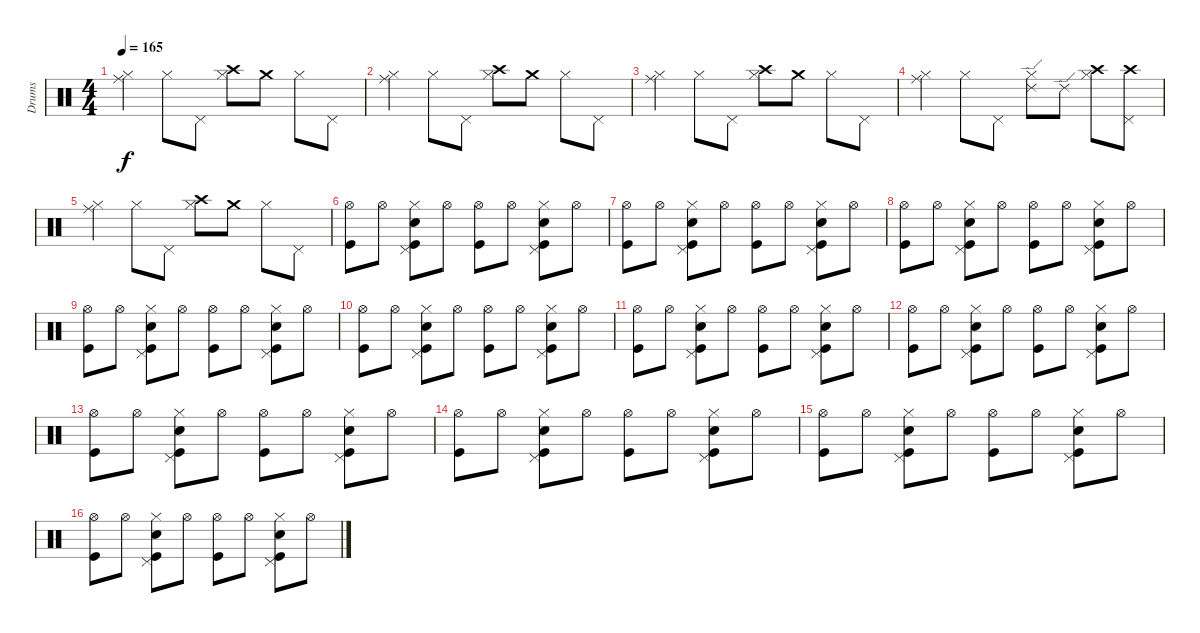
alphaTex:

\track ("Drums" "Drums") {instrument percussion}
\staff {score}
\articulation defaults
\ts (4 4)
\tempo 165
\clef neutral
\ks c
("Hi-Hat (closed)" "Ride (middle)").4{dy f} "Hi-Hat (closed)".8 "Pedal Hi-Hat (hit)".8 ("Hi-Hat (closed)" "Crash high (hit)").8 "Crash medium (hit)".8 "Hi-Hat (closed)".8 "Pedal Hi-Hat (hit)".8 |
("Hi-Hat (closed)" "Ride (middle)").4 "Hi-Hat (closed)".8 "Pedal Hi-Hat (hit)".8 ("Hi-Hat (closed)" "Crash high (hit)").8 "Crash medium (hit)".8 "Hi-Hat (closed)".8 "Pedal Hi-Hat (hit)".8 |
("Hi-Hat (closed)" "Ride (middle)").4 "Hi-Hat (closed)".8 "Pedal Hi-Hat (hit)".8 ("Hi-Hat (closed)" "Crash high (hit)").8 "Crash medium (hit)".8 "Hi-Hat (closed)".8 "Pedal Hi-Hat (hit)".8 |
("Hi-Hat (closed)" "Ride (middle)").4 "Hi-Hat (closed)".8 "Pedal Hi-Hat (hit)".8 ("Hi-Hat (closed)" "Ride (edge) 2").8 "Ride (edge) 2".8 ("Hi-Hat (closed)" "Crash high (hit)").8 ("Pedal Hi-Hat (hit)" "Crash high (hit)").8 |
("Hi-Hat (closed)" "Ride (middle)").4 "Hi-Hat (closed)".8 "Pedal Hi-Hat (hit)".8 ("Hi-Hat (closed)" "Crash high (hit)").8 "Crash medium (hit)".8 "Hi-Hat (closed)".8 "Pedal Hi-Hat (hit)".8 |
("Hi-Hat (open)" "Kick (hit)").8 "Hi-Hat (open)".8 ("Hi-Hat (closed)" "Pedal Hi-Hat (hit)" "Snare (hit) 2" "Kick (hit)").8 "Hi-Hat (open)".8 ("Hi-Hat (open)" "Kick (hit)").8 "Hi-Hat (open)".8 ("Hi-Hat (closed)" "Pedal Hi-Hat (hit)" "Snare (hit) 2" "Kick (hit)").8 "Hi-Hat (open)".8 |
("Hi-Hat (open)" "Kick (hit)").8 "Hi-Hat (open)".8 ("Hi-Hat (closed)" "Pedal Hi-Hat (hit)" "Snare (hit) 2" "Kick (hit)").8 "Hi-Hat (open)".8 ("Hi-Hat (open)" "Kick (hit)").8 "Hi-Hat (open)".8 ("Hi-Hat (closed)" "Pedal Hi-Hat (hit)" "Snare (hit) 2" "Kick (hit)").8 "Hi-Hat (open)".8 |
("Hi-Hat (open)" "Kick (hit)").8 "Hi-Hat (open)".8 ("Hi-Hat (closed)" "Pedal Hi-Hat (hit)" "Snare (hit) 2" "Kick (hit)").8 "Hi-Hat (open)".8 ("Hi-Hat (open)" "Kick (hit)").8 "Hi-Hat (open)".8 ("Hi-Hat (closed)" "Pedal Hi-Hat (hit)" "Snare (hit) 2" "Kick (hit)").8 "Hi-Hat (open)".8 |
("Hi-Hat (open)" "Kick (hit)").8 "Hi-Hat (open)".8 ("Hi-Hat (closed)" "Pedal Hi-Hat (hit)" "Snare (hit) 2" "Kick (hit)").8 "Hi-Hat (open)".8 ("Hi-Hat (open)" "Kick (hit)").8 "Hi-Hat (open)".8 ("Hi-Hat (closed)" "Pedal Hi-Hat (hit)" "Snare (hit) 2" "Kick (hit)").8 "Hi-Hat (open)".8 |
("Hi-Hat (open)" "Kick (hit)").8 "Hi-Hat (open)".8 ("Hi-Hat (closed)" "Pedal Hi-Hat (hit)" "Snare (hit) 2" "Kick (hit)").8 "Hi-Hat (open)".8 ("Hi-Hat (open)" "Kick (hit)").8 "Hi-Hat (open)".8 ("Hi-Hat (closed)" "Pedal Hi-Hat (hit)" "Snare (hit) 2" "Kick (hit)").8 "Hi-Hat (open)".8 |
("Hi-Hat (open)" "Kick (hit)").8 "Hi-Hat (open)".8 ("Hi-Hat (closed)" "Pedal Hi-Hat (hit)" "Snare (hit) 2" "Kick (hit)").8 "Hi-Hat (open)".8 ("Hi-Hat (open)" "Kick (hit)").8 "Hi-Hat (open)".8 ("Hi-Hat (closed)" "Pedal Hi-Hat (hit)" "Snare (hit) 2" "Kick (hit)").8 "Hi-Hat (open)".8 |
("Hi-Hat (open)" "Kick (hit)").8 "Hi-Hat (open)".8 ("Hi-Hat (closed)" "Pedal Hi-Hat (hit)" "Snare (hit) 2" "Kick (hit)").8 "Hi-Hat (open)".8 ("Hi-Hat (open)" "Kick (hit)").8 "Hi-Hat (open)".8 ("Hi-Hat (closed)" "Pedal Hi-Hat (hit)" "Snare (hit) 2" "Kick (hit)").8 "Hi-Hat (open)".8 |
("Hi-Hat (open)" "Kick (hit)").8 "Hi-Hat (open)".8 ("Hi-Hat (closed)" "Pedal Hi-Hat (hit)" "Snare (hit) 2" "Kick (hit)").8 "Hi-Hat (open)".8 ("Hi-Hat (open)" "Kick (hit)").8 "Hi-Hat (open)".8 ("Hi-Hat (closed)" "Pedal Hi-Hat (hit)" "Snare (hit) 2" "Kick (hit)").8 "Hi-Hat (open)".8 |
("Hi-Hat (open)" "Kick (hit)").8 "Hi-Hat (open)".8 ("Hi-Hat (closed)" "Pedal Hi-Hat (hit)" "Snare (hit) 2" "Kick (hit)").8 "Hi-Hat (open)".8 ("Hi-Hat (open)" "Kick (hit)").8 "Hi-Hat (open)".8 ("Hi-Hat (closed)" "Pedal Hi-Hat (hit)" "Snare (hit) 2" "Kick (hit)").8 "Hi-Hat (open)".8 |
("Hi-Hat (open)" "Kick (hit)").8 "Hi-Hat (open)".8 ("Hi-Hat (closed)" "Pedal Hi-Hat (hit)" "Snare (hit) 2" "Kick (hit)").8 "Hi-Hat (open)".8 ("Hi-Hat (open)" "Kick (hit)").8 "Hi-Hat (open)".8 ("Hi-Hat (closed)" "Pedal Hi-Hat (hit)" "Snare (hit) 2" "Kick (hit)").8 "Hi-Hat (open)".8 |
("Hi-Hat (open)" "Kick (hit)").8 "Hi-Hat (open)".8 ("Hi-Hat (closed)" "Pedal Hi-Hat (hit)" "Snare (hit) 2" "Kick (hit)").8 "Hi-Hat (open)".8 ("Hi-Hat (open)" "Kick (hit)").8 "Hi-Hat (open)".8 ("Hi-Hat (closed)" "Pedal Hi-Hat (hit)" "Snare (hit) 2" "Kick (hit)").8 "Hi-Hat (open)".8
